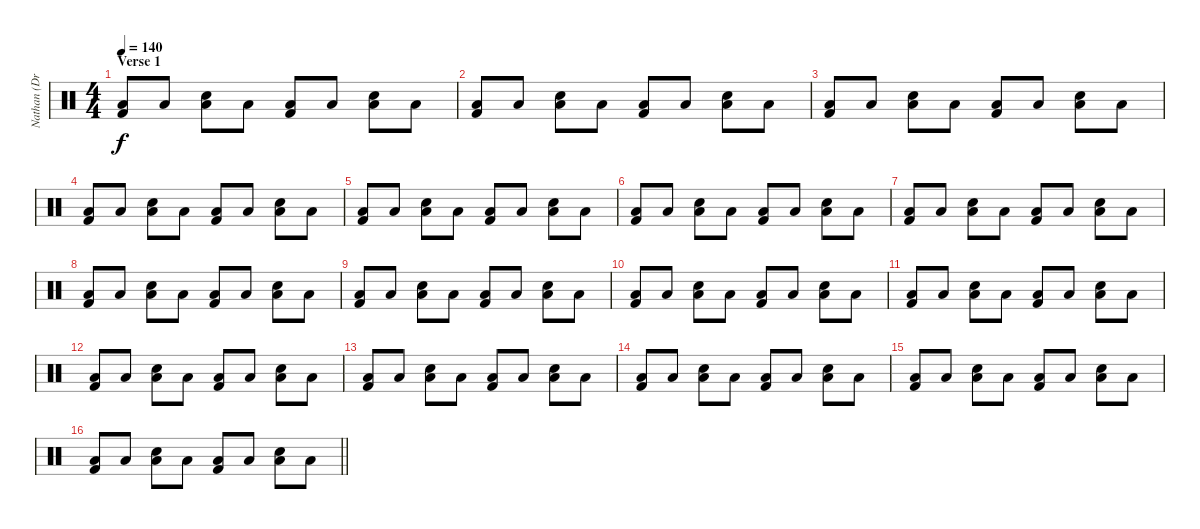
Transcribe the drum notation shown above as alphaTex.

\track ("Nathan (Drums)" "Nathan (Dr") {instrument percussion}
\staff {score}
\articulation defaults
\ts (4 4)
\section ("" "Verse 1")
\tempo 140
\clef neutral
\ks c
("Low Floor Tom (hit)" "Kick (hit) 2").8{dy f} "Low Floor Tom (hit)".8 ("Low Floor Tom (hit)" "Electric Snare (hit)").8 "Low Floor Tom (hit)".8 ("Low Floor Tom (hit)" "Kick (hit) 2").8 "Low Floor Tom (hit)".8 ("Low Floor Tom (hit)" "Electric Snare (hit)").8 "Low Floor Tom (hit)".8 |
("Low Floor Tom (hit)" "Kick (hit) 2").8 "Low Floor Tom (hit)".8 ("Low Floor Tom (hit)" "Electric Snare (hit)").8 "Low Floor Tom (hit)".8 ("Low Floor Tom (hit)" "Kick (hit) 2").8 "Low Floor Tom (hit)".8 ("Low Floor Tom (hit)" "Electric Snare (hit)").8 "Low Floor Tom (hit)".8 |
("Low Floor Tom (hit)" "Kick (hit) 2").8 "Low Floor Tom (hit)".8 ("Low Floor Tom (hit)" "Electric Snare (hit)").8 "Low Floor Tom (hit)".8 ("Low Floor Tom (hit)" "Kick (hit) 2").8 "Low Floor Tom (hit)".8 ("Low Floor Tom (hit)" "Electric Snare (hit)").8 "Low Floor Tom (hit)".8 |
("Low Floor Tom (hit)" "Kick (hit) 2").8 "Low Floor Tom (hit)".8 ("Low Floor Tom (hit)" "Electric Snare (hit)").8 "Low Floor Tom (hit)".8 ("Low Floor Tom (hit)" "Kick (hit) 2").8 "Low Floor Tom (hit)".8 ("Low Floor Tom (hit)" "Electric Snare (hit)").8 "Low Floor Tom (hit)".8 |
("Low Floor Tom (hit)" "Kick (hit) 2").8 "Low Floor Tom (hit)".8 ("Low Floor Tom (hit)" "Electric Snare (hit)").8 "Low Floor Tom (hit)".8 ("Low Floor Tom (hit)" "Kick (hit) 2").8 "Low Floor Tom (hit)".8 ("Low Floor Tom (hit)" "Electric Snare (hit)").8 "Low Floor Tom (hit)".8 |
("Low Floor Tom (hit)" "Kick (hit) 2").8 "Low Floor Tom (hit)".8 ("Low Floor Tom (hit)" "Electric Snare (hit)").8 "Low Floor Tom (hit)".8 ("Low Floor Tom (hit)" "Kick (hit) 2").8 "Low Floor Tom (hit)".8 ("Low Floor Tom (hit)" "Electric Snare (hit)").8 "Low Floor Tom (hit)".8 |
("Low Floor Tom (hit)" "Kick (hit) 2").8 "Low Floor Tom (hit)".8 ("Low Floor Tom (hit)" "Electric Snare (hit)").8 "Low Floor Tom (hit)".8 ("Low Floor Tom (hit)" "Kick (hit) 2").8 "Low Floor Tom (hit)".8 ("Low Floor Tom (hit)" "Electric Snare (hit)").8 "Low Floor Tom (hit)".8 |
("Low Floor Tom (hit)" "Kick (hit) 2").8 "Low Floor Tom (hit)".8 ("Low Floor Tom (hit)" "Electric Snare (hit)").8 "Low Floor Tom (hit)".8 ("Low Floor Tom (hit)" "Kick (hit) 2").8 "Low Floor Tom (hit)".8 ("Low Floor Tom (hit)" "Electric Snare (hit)").8 "Low Floor Tom (hit)".8 |
("Low Floor Tom (hit)" "Kick (hit) 2").8 "Low Floor Tom (hit)".8 ("Low Floor Tom (hit)" "Electric Snare (hit)").8 "Low Floor Tom (hit)".8 ("Low Floor Tom (hit)" "Kick (hit) 2").8 "Low Floor Tom (hit)".8 ("Low Floor Tom (hit)" "Electric Snare (hit)").8 "Low Floor Tom (hit)".8 |
("Low Floor Tom (hit)" "Kick (hit) 2").8 "Low Floor Tom (hit)".8 ("Low Floor Tom (hit)" "Electric Snare (hit)").8 "Low Floor Tom (hit)".8 ("Low Floor Tom (hit)" "Kick (hit) 2").8 "Low Floor Tom (hit)".8 ("Low Floor Tom (hit)" "Electric Snare (hit)").8 "Low Floor Tom (hit)".8 |
("Low Floor Tom (hit)" "Kick (hit) 2").8 "Low Floor Tom (hit)".8 ("Low Floor Tom (hit)" "Electric Snare (hit)").8 "Low Floor Tom (hit)".8 ("Low Floor Tom (hit)" "Kick (hit) 2").8 "Low Floor Tom (hit)".8 ("Low Floor Tom (hit)" "Electric Snare (hit)").8 "Low Floor Tom (hit)".8 |
("Low Floor Tom (hit)" "Kick (hit) 2").8 "Low Floor Tom (hit)".8 ("Low Floor Tom (hit)" "Electric Snare (hit)").8 "Low Floor Tom (hit)".8 ("Low Floor Tom (hit)" "Kick (hit) 2").8 "Low Floor Tom (hit)".8 ("Low Floor Tom (hit)" "Electric Snare (hit)").8 "Low Floor Tom (hit)".8 |
("Low Floor Tom (hit)" "Kick (hit) 2").8 "Low Floor Tom (hit)".8 ("Low Floor Tom (hit)" "Electric Snare (hit)").8 "Low Floor Tom (hit)".8 ("Low Floor Tom (hit)" "Kick (hit) 2").8 "Low Floor Tom (hit)".8 ("Low Floor Tom (hit)" "Electric Snare (hit)").8 "Low Floor Tom (hit)".8 |
("Low Floor Tom (hit)" "Kick (hit) 2").8 "Low Floor Tom (hit)".8 ("Low Floor Tom (hit)" "Electric Snare (hit)").8 "Low Floor Tom (hit)".8 ("Low Floor Tom (hit)" "Kick (hit) 2").8 "Low Floor Tom (hit)".8 ("Low Floor Tom (hit)" "Electric Snare (hit)").8 "Low Floor Tom (hit)".8 |
("Low Floor Tom (hit)" "Kick (hit) 2").8 "Low Floor Tom (hit)".8 ("Low Floor Tom (hit)" "Electric Snare (hit)").8 "Low Floor Tom (hit)".8 ("Low Floor Tom (hit)" "Kick (hit) 2").8 "Low Floor Tom (hit)".8 ("Low Floor Tom (hit)" "Electric Snare (hit)").8 "Low Floor Tom (hit)".8 |
\barLineRight lightlight
("Low Floor Tom (hit)" "Kick (hit) 2").8 "Low Floor Tom (hit)".8 ("Low Floor Tom (hit)" "Electric Snare (hit)").8 "Low Floor Tom (hit)".8 ("Low Floor Tom (hit)" "Kick (hit) 2").8 "Low Floor Tom (hit)".8 ("Low Floor Tom (hit)" "Electric Snare (hit)").8 "Low Floor Tom (hit)".8
